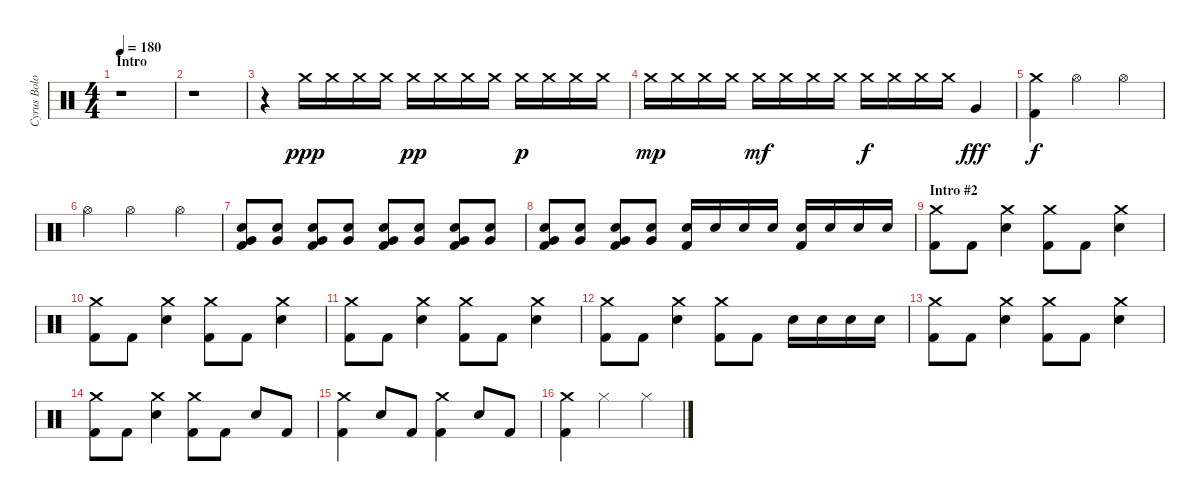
\track ("Cyrus Bolooki - Drums" "Cyrus Bolo") {instrument percussion}
\staff {score}
\articulation defaults
\ts (4 4)
\section ("" "Intro")
\tempo 180
\clef neutral
\ks c
r.1{dy ppp} |
r.1 |
r.4 "Crash medium (hit)".16 "Crash medium (hit)".16 "Crash medium (hit)".16 "Crash medium (hit)".16 "Crash medium (hit)".16{dy pp} "Crash medium (hit)".16 "Crash medium (hit)".16 "Crash medium (hit)".16 "Crash medium (hit)".16{dy p} "Crash medium (hit)".16 "Crash medium (hit)".16 "Crash medium (hit)".16 |
"Crash medium (hit)".16{dy mp} "Crash medium (hit)".16 "Crash medium (hit)".16 "Crash medium (hit)".16 "Crash medium (hit)".16{dy mf} "Crash medium (hit)".16 "Crash medium (hit)".16 "Crash medium (hit)".16 "Crash medium (hit)".16{dy f} "Crash medium (hit)".16 "Crash medium (hit)".16 "Crash medium (hit)".16 "Very Low Tom (hit)".4{dy fff} |
("Crash medium (hit)" "Kick (hit) 2").4{dy f} "Hi-Hat (open)".2 "Hi-Hat (open)".4 |
"Hi-Hat (open)".4 "Hi-Hat (open)".2 "Hi-Hat (open)".4 |
("Very Low Tom (hit)" "Electric Snare (hit)" "Kick (hit) 2").8 ("Very Low Tom (hit)" "Electric Snare (hit)").8 ("Very Low Tom (hit)" "Electric Snare (hit)" "Kick (hit) 2").8 ("Very Low Tom (hit)" "Electric Snare (hit)").8 ("Very Low Tom (hit)" "Electric Snare (hit)" "Kick (hit) 2").8 ("Very Low Tom (hit)" "Electric Snare (hit)").8 ("Very Low Tom (hit)" "Electric Snare (hit)" "Kick (hit) 2").8 ("Very Low Tom (hit)" "Electric Snare (hit)").8 |
("Very Low Tom (hit)" "Electric Snare (hit)" "Kick (hit) 2").8 ("Very Low Tom (hit)" "Electric Snare (hit)").8 ("Very Low Tom (hit)" "Electric Snare (hit)" "Kick (hit) 2").8 ("Very Low Tom (hit)" "Electric Snare (hit)").8 ("Electric Snare (hit)" "Kick (hit) 2").16 "Electric Snare (hit)".16 "Electric Snare (hit)".16 "Electric Snare (hit)".16 ("Electric Snare (hit)" "Kick (hit) 2").16 "Electric Snare (hit)".16 "Electric Snare (hit)".16 "Electric Snare (hit)".16 |
\section ("" "Intro #2")
("Crash medium (hit)" "Kick (hit) 2").8 "Kick (hit) 2".8 ("Crash medium (hit)" "Electric Snare (hit)").4 ("Crash medium (hit)" "Kick (hit) 2").8 "Kick (hit) 2".8 ("Crash medium (hit)" "Electric Snare (hit)").4 |
("Crash medium (hit)" "Kick (hit) 2").8 "Kick (hit) 2".8 ("Crash medium (hit)" "Electric Snare (hit)").4 ("Crash medium (hit)" "Kick (hit) 2").8 "Kick (hit) 2".8 ("Crash medium (hit)" "Electric Snare (hit)").4 |
("Crash medium (hit)" "Kick (hit) 2").8 "Kick (hit) 2".8 ("Crash medium (hit)" "Electric Snare (hit)").4 ("Crash medium (hit)" "Kick (hit) 2").8 "Kick (hit) 2".8 ("Crash medium (hit)" "Electric Snare (hit)").4 |
("Crash medium (hit)" "Kick (hit) 2").8 "Kick (hit) 2".8 ("Crash medium (hit)" "Electric Snare (hit)").4 ("Crash medium (hit)" "Kick (hit) 2").8 "Kick (hit) 2".8 "Electric Snare (hit)".16 "Electric Snare (hit)".16 "Electric Snare (hit)".16 "Electric Snare (hit)".16 |
("Crash medium (hit)" "Kick (hit) 2").8 "Kick (hit) 2".8 ("Crash medium (hit)" "Electric Snare (hit)").4 ("Crash medium (hit)" "Kick (hit) 2").8 "Kick (hit) 2".8 ("Crash medium (hit)" "Electric Snare (hit)").4 |
("Crash medium (hit)" "Kick (hit) 2").8 "Kick (hit) 2".8 ("Crash medium (hit)" "Electric Snare (hit)").4 ("Crash medium (hit)" "Kick (hit) 2").8 "Kick (hit) 2".8 "Electric Snare (hit)".8 "Kick (hit) 2".8 |
("Crash medium (hit)" "Kick (hit) 2").4 "Electric Snare (hit)".8 "Kick (hit) 2".8 ("Crash medium (hit)" "Kick (hit) 2").4 "Electric Snare (hit)".8 "Kick (hit) 2".8 |
("Crash medium (hit)" "Kick (hit) 2").4 "Hi-Hat (closed)".2 "Hi-Hat (closed)".4
